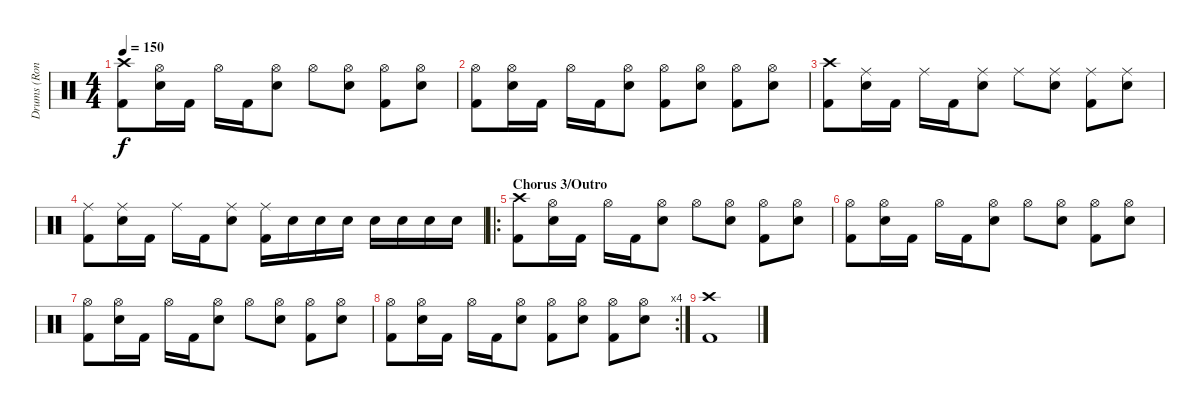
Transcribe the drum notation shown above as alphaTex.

\track ("Drums (Ron Welty)" "Drums (Ron") {instrument percussion}
\staff {score}
\articulation defaults
\ts (4 4)
\tempo 150
\clef neutral
\ks c
("Crash high (hit)" "Kick (hit) 2").8{dy f} ("Hi-Hat (open)" "Electric Snare (hit)").16 "Kick (hit) 2".16 "Hi-Hat (open)".16 "Kick (hit) 2".16 ("Hi-Hat (open)" "Electric Snare (hit)").8 "Hi-Hat (open)".8 ("Hi-Hat (open)" "Electric Snare (hit)").8 ("Hi-Hat (open)" "Kick (hit) 2").8 ("Hi-Hat (open)" "Electric Snare (hit)").8 |
("Hi-Hat (open)" "Kick (hit) 2").8 ("Hi-Hat (open)" "Electric Snare (hit)").16 "Kick (hit) 2".16 "Hi-Hat (open)".16 "Kick (hit) 2".16 ("Hi-Hat (open)" "Electric Snare (hit)").8 ("Hi-Hat (open)" "Kick (hit) 2").8 ("Hi-Hat (open)" "Electric Snare (hit)").8 ("Hi-Hat (open)" "Kick (hit) 2").8 ("Hi-Hat (open)" "Electric Snare (hit)").8 |
("Crash high (hit)" "Kick (hit) 2").8 ("Ride (middle)" "Electric Snare (hit)").16 "Kick (hit) 2".16 "Ride (middle)".16 "Kick (hit) 2".16 ("Ride (middle)" "Electric Snare (hit)").8 "Ride (middle)".8 ("Ride (middle)" "Electric Snare (hit)").8 ("Ride (middle)" "Kick (hit) 2").8 ("Ride (middle)" "Electric Snare (hit)").8 |
("Ride (middle)" "Kick (hit) 2").8 ("Ride (middle)" "Electric Snare (hit)").16 "Kick (hit) 2".16 "Ride (middle)".16 "Kick (hit) 2".16 ("Ride (middle)" "Electric Snare (hit)").8 ("Ride (middle)" "Kick (hit) 2").16 "Electric Snare (hit)".16 "Electric Snare (hit)".16 "Electric Snare (hit)".16 "Electric Snare (hit)".16 "Electric Snare (hit)".16 "Electric Snare (hit)".16 "Electric Snare (hit)".16 |
\ro
\section ("" "Chorus 3/Outro")
("Crash high (hit)" "Kick (hit) 2").8 ("Hi-Hat (open)" "Electric Snare (hit)").16 "Kick (hit) 2".16 "Hi-Hat (open)".16 "Kick (hit) 2".16 ("Hi-Hat (open)" "Electric Snare (hit)").8 "Hi-Hat (open)".8 ("Hi-Hat (open)" "Electric Snare (hit)").8 ("Hi-Hat (open)" "Kick (hit) 2").8 ("Hi-Hat (open)" "Electric Snare (hit)").8 |
("Hi-Hat (open)" "Kick (hit) 2").8 ("Hi-Hat (open)" "Electric Snare (hit)").16 "Kick (hit) 2".16 "Hi-Hat (open)".16 "Kick (hit) 2".16 ("Hi-Hat (open)" "Electric Snare (hit)").8 "Hi-Hat (open)".8 ("Hi-Hat (open)" "Electric Snare (hit)").8 ("Hi-Hat (open)" "Kick (hit) 2").8 ("Hi-Hat (open)" "Electric Snare (hit)").8 |
("Hi-Hat (open)" "Kick (hit) 2").8 ("Hi-Hat (open)" "Electric Snare (hit)").16 "Kick (hit) 2".16 "Hi-Hat (open)".16 "Kick (hit) 2".16 ("Hi-Hat (open)" "Electric Snare (hit)").8 "Hi-Hat (open)".8 ("Hi-Hat (open)" "Electric Snare (hit)").8 ("Hi-Hat (open)" "Kick (hit) 2").8 ("Hi-Hat (open)" "Electric Snare (hit)").8 |
\rc 4
("Hi-Hat (open)" "Kick (hit) 2").8 ("Hi-Hat (open)" "Electric Snare (hit)").16 "Kick (hit) 2".16 "Hi-Hat (open)".16 "Kick (hit) 2".16 ("Hi-Hat (open)" "Electric Snare (hit)").8 ("Hi-Hat (open)" "Kick (hit) 2").8 ("Hi-Hat (open)" "Electric Snare (hit)").8 ("Hi-Hat (open)" "Kick (hit) 2").8 ("Hi-Hat (open)" "Electric Snare (hit)").8 |
("Crash high (hit)" "Kick (hit) 2").1
